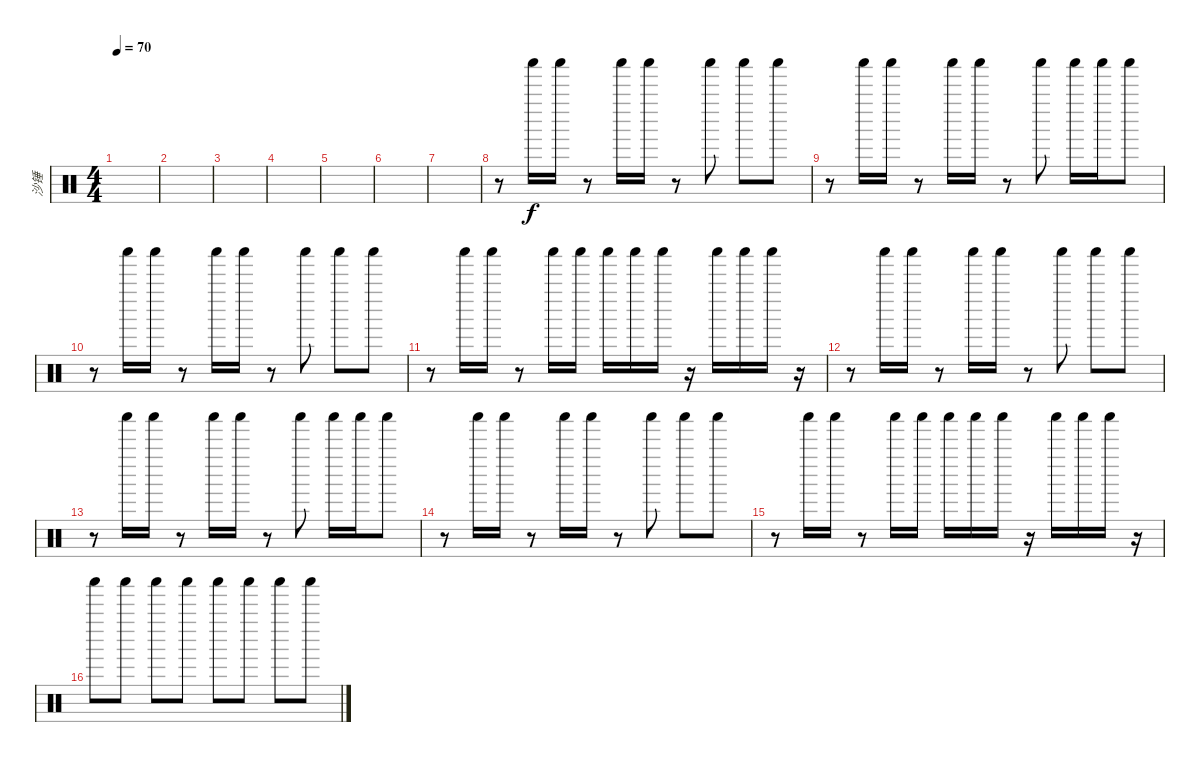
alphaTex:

\track ("沙锤" "沙锤") {instrument percussion}
\staff {score}
\articulation defaults
\ts (4 4)
\tempo 70
\clef neutral
\ks c
|
|
|
|
|
|
|
r.8 "Shaker (hit)".16 "Shaker (hit)".16 r.8 "Shaker (hit)".16 "Shaker (hit)".16 r.8 "Shaker (hit)".8 "Shaker (hit)".8 "Shaker (hit)".8 |
r.8 "Shaker (hit)".16 "Shaker (hit)".16 r.8 "Shaker (hit)".16 "Shaker (hit)".16 r.8 "Shaker (hit)".8 "Shaker (hit)".16 "Shaker (hit)".16 "Shaker (hit)".8 |
r.8 "Shaker (hit)".16 "Shaker (hit)".16 r.8 "Shaker (hit)".16 "Shaker (hit)".16 r.8 "Shaker (hit)".8 "Shaker (hit)".8 "Shaker (hit)".8 |
r.8 "Shaker (hit)".16 "Shaker (hit)".16 r.8 "Shaker (hit)".16 "Shaker (hit)".16 "Shaker (hit)".16 "Shaker (hit)".16 "Shaker (hit)".16 r.16 "Shaker (hit)".16 "Shaker (hit)".16 "Shaker (hit)".16 r.16 |
r.8 "Shaker (hit)".16 "Shaker (hit)".16 r.8 "Shaker (hit)".16 "Shaker (hit)".16 r.8 "Shaker (hit)".8 "Shaker (hit)".8 "Shaker (hit)".8 |
r.8 "Shaker (hit)".16 "Shaker (hit)".16 r.8 "Shaker (hit)".16 "Shaker (hit)".16 r.8 "Shaker (hit)".8 "Shaker (hit)".16 "Shaker (hit)".16 "Shaker (hit)".8 |
r.8 "Shaker (hit)".16 "Shaker (hit)".16 r.8 "Shaker (hit)".16 "Shaker (hit)".16 r.8 "Shaker (hit)".8 "Shaker (hit)".8 "Shaker (hit)".8 |
r.8 "Shaker (hit)".16 "Shaker (hit)".16 r.8 "Shaker (hit)".16 "Shaker (hit)".16 "Shaker (hit)".16 "Shaker (hit)".16 "Shaker (hit)".16 r.16 "Shaker (hit)".16 "Shaker (hit)".16 "Shaker (hit)".16 r.16 |
"Shaker (hit)".8 "Shaker (hit)".8 "Shaker (hit)".8 "Shaker (hit)".8 "Shaker (hit)".8 "Shaker (hit)".8 "Shaker (hit)".8 "Shaker (hit)".8
